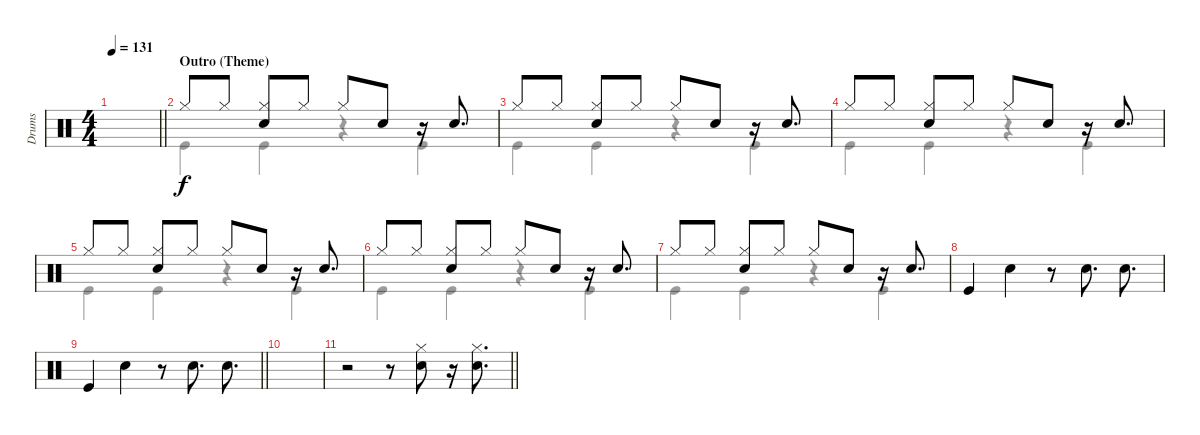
\track ("Drums" "Drums") {instrument percussion}
\staff {score}
\articulation defaults
\voice
\ts (4 4)
\tempo 131
\clef neutral
\barLineRight lightlight
\ks c
|
\section ("" "Outro (Theme)")
"Hi-Hat (closed)".8 "Hi-Hat (closed)".8 ("Hi-Hat (closed)" "Snare (hit) 2").8 "Hi-Hat (closed)".8 "Hi-Hat (closed)".8 "Snare (hit) 2".8 r.16 "Snare (hit) 2".8{d} |
"Hi-Hat (closed)".8 "Hi-Hat (closed)".8 ("Hi-Hat (closed)" "Snare (hit) 2").8 "Hi-Hat (closed)".8 "Hi-Hat (closed)".8 "Snare (hit) 2".8 r.16 "Snare (hit) 2".8{d} |
"Hi-Hat (closed)".8 "Hi-Hat (closed)".8 ("Hi-Hat (closed)" "Snare (hit) 2").8 "Hi-Hat (closed)".8 "Hi-Hat (closed)".8 "Snare (hit) 2".8 r.16 "Snare (hit) 2".8{d} |
"Hi-Hat (closed)".8 "Hi-Hat (closed)".8 ("Hi-Hat (closed)" "Snare (hit) 2").8 "Hi-Hat (closed)".8 "Hi-Hat (closed)".8 "Snare (hit) 2".8 r.16 "Snare (hit) 2".8{d} |
"Hi-Hat (closed)".8 "Hi-Hat (closed)".8 ("Hi-Hat (closed)" "Snare (hit) 2").8 "Hi-Hat (closed)".8 "Hi-Hat (closed)".8 "Snare (hit) 2".8 r.16 "Snare (hit) 2".8{d} |
"Hi-Hat (closed)".8 "Hi-Hat (closed)".8 ("Hi-Hat (closed)" "Snare (hit) 2").8 "Hi-Hat (closed)".8 "Hi-Hat (closed)".8 "Snare (hit) 2".8 r.16 "Snare (hit) 2".8{d} |
"Kick (hit)".4 "Snare (hit) 2".4 r.8 "Snare (hit) 2".8{d} "Snare (hit) 2".8{d} |
\barLineRight lightlight "Kick (hit)".4 "Snare (hit) 2".4
r.8 "Snare (hit) 2".8{d} "Snare (hit) 2".8{d} |
|
\barLineRight lightlight
r.2 r.8 ("Hi-Hat (closed)" "Snare (hit) 2").8 r.16 ("Hi-Hat (closed)" "Snare (hit) 2").8{d} |
\voice
\clef neutral
\ottava regular
\simile none
\barLineRight lightlight
\ks c
|
"Kick (hit)".4 "Kick (hit)".4 r.4 "Kick (hit)".4 |
"Kick (hit)".4 "Kick (hit)".4 r.4 "Kick (hit)".4 |
"Kick (hit)".4 "Kick (hit)".4 r.4 "Kick (hit)".4 |
"Kick (hit)".4 "Kick (hit)".4 r.4 "Kick (hit)".4 |
"Kick (hit)".4 "Kick (hit)".4 r.4 "Kick (hit)".4 |
"Kick (hit)".4 "Kick (hit)".4 r.4 "Kick (hit)".4 |
|
\barLineRight lightlight
|
|
\barLineRight lightlight
|
